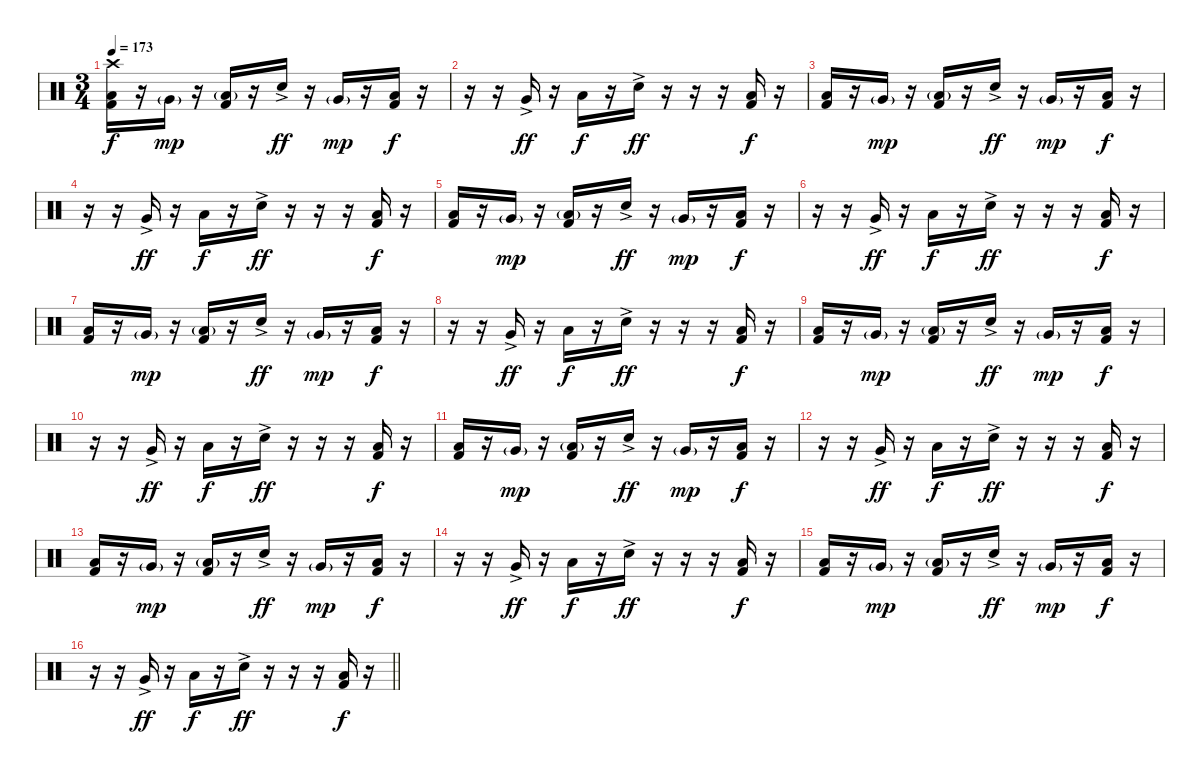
\track (" " " ") {instrument percussion}
\staff {score}
\articulation defaults
\ts (3 4)
\tempo 173
\clef neutral
\ks c
("Crash high (hit)" "Low Floor Tom (hit)" "Kick (hit) 2").16{dy f} r.16 "Very Low Tom (hit)"{g}.16{dy mp} r.16 ("Low Floor Tom (hit)"{g} "Kick (hit) 2").16 r.16 "Electric Snare (hit)"{ac}.16{dy ff} r.16 "Very Low Tom (hit)"{g}.16{dy mp} r.16 ("Low Floor Tom (hit)" "Kick (hit) 2").16{dy f} r.16 |
r.16 r.16 "Very Low Tom (hit)"{ac}.16{dy ff} r.16 "Low Floor Tom (hit)".16{dy f} r.16 "Electric Snare (hit)"{ac}.16{dy ff} r.16 r.16 r.16 ("Low Floor Tom (hit)" "Kick (hit) 2").16{dy f} r.16 |
("Low Floor Tom (hit)" "Kick (hit) 2").16 r.16 "Very Low Tom (hit)"{g}.16{dy mp} r.16 ("Low Floor Tom (hit)"{g} "Kick (hit) 2").16 r.16 "Electric Snare (hit)"{ac}.16{dy ff} r.16 "Very Low Tom (hit)"{g}.16{dy mp} r.16 ("Low Floor Tom (hit)" "Kick (hit) 2").16{dy f} r.16 |
r.16 r.16 "Very Low Tom (hit)"{ac}.16{dy ff} r.16 "Low Floor Tom (hit)".16{dy f} r.16 "Electric Snare (hit)"{ac}.16{dy ff} r.16 r.16 r.16 ("Low Floor Tom (hit)" "Kick (hit) 2").16{dy f} r.16 |
("Low Floor Tom (hit)" "Kick (hit) 2").16 r.16 "Very Low Tom (hit)"{g}.16{dy mp} r.16 ("Low Floor Tom (hit)"{g} "Kick (hit) 2").16 r.16 "Electric Snare (hit)"{ac}.16{dy ff} r.16 "Very Low Tom (hit)"{g}.16{dy mp} r.16 ("Low Floor Tom (hit)" "Kick (hit) 2").16{dy f} r.16 |
r.16 r.16 "Very Low Tom (hit)"{ac}.16{dy ff} r.16 "Low Floor Tom (hit)".16{dy f} r.16 "Electric Snare (hit)"{ac}.16{dy ff} r.16 r.16 r.16 ("Low Floor Tom (hit)" "Kick (hit) 2").16{dy f} r.16 |
("Low Floor Tom (hit)" "Kick (hit) 2").16 r.16 "Very Low Tom (hit)"{g}.16{dy mp} r.16 ("Low Floor Tom (hit)"{g} "Kick (hit) 2").16 r.16 "Electric Snare (hit)"{ac}.16{dy ff} r.16 "Very Low Tom (hit)"{g}.16{dy mp} r.16 ("Low Floor Tom (hit)" "Kick (hit) 2").16{dy f} r.16 |
r.16 r.16 "Very Low Tom (hit)"{ac}.16{dy ff} r.16 "Low Floor Tom (hit)".16{dy f} r.16 "Electric Snare (hit)"{ac}.16{dy ff} r.16 r.16 r.16 ("Low Floor Tom (hit)" "Kick (hit) 2").16{dy f} r.16 |
("Low Floor Tom (hit)" "Kick (hit) 2").16 r.16 "Very Low Tom (hit)"{g}.16{dy mp} r.16 ("Low Floor Tom (hit)"{g} "Kick (hit) 2").16 r.16 "Electric Snare (hit)"{ac}.16{dy ff} r.16 "Very Low Tom (hit)"{g}.16{dy mp} r.16 ("Low Floor Tom (hit)" "Kick (hit) 2").16{dy f} r.16 |
r.16 r.16 "Very Low Tom (hit)"{ac}.16{dy ff} r.16 "Low Floor Tom (hit)".16{dy f} r.16 "Electric Snare (hit)"{ac}.16{dy ff} r.16 r.16 r.16 ("Low Floor Tom (hit)" "Kick (hit) 2").16{dy f} r.16 |
("Low Floor Tom (hit)" "Kick (hit) 2").16 r.16 "Very Low Tom (hit)"{g}.16{dy mp} r.16 ("Low Floor Tom (hit)"{g} "Kick (hit) 2").16 r.16 "Electric Snare (hit)"{ac}.16{dy ff} r.16 "Very Low Tom (hit)"{g}.16{dy mp} r.16 ("Low Floor Tom (hit)" "Kick (hit) 2").16{dy f} r.16 |
r.16 r.16 "Very Low Tom (hit)"{ac}.16{dy ff} r.16 "Low Floor Tom (hit)".16{dy f} r.16 "Electric Snare (hit)"{ac}.16{dy ff} r.16 r.16 r.16 ("Low Floor Tom (hit)" "Kick (hit) 2").16{dy f} r.16 |
("Low Floor Tom (hit)" "Kick (hit) 2").16 r.16 "Very Low Tom (hit)"{g}.16{dy mp} r.16 ("Low Floor Tom (hit)"{g} "Kick (hit) 2").16 r.16 "Electric Snare (hit)"{ac}.16{dy ff} r.16 "Very Low Tom (hit)"{g}.16{dy mp} r.16 ("Low Floor Tom (hit)" "Kick (hit) 2").16{dy f} r.16 |
r.16 r.16 "Very Low Tom (hit)"{ac}.16{dy ff} r.16 "Low Floor Tom (hit)".16{dy f} r.16 "Electric Snare (hit)"{ac}.16{dy ff} r.16 r.16 r.16 ("Low Floor Tom (hit)" "Kick (hit) 2").16{dy f} r.16 |
("Low Floor Tom (hit)" "Kick (hit) 2").16 r.16 "Very Low Tom (hit)"{g}.16{dy mp} r.16 ("Low Floor Tom (hit)"{g} "Kick (hit) 2").16 r.16 "Electric Snare (hit)"{ac}.16{dy ff} r.16 "Very Low Tom (hit)"{g}.16{dy mp} r.16 ("Low Floor Tom (hit)" "Kick (hit) 2").16{dy f} r.16 |
\barLineRight lightlight
r.16 r.16 "Very Low Tom (hit)"{ac}.16{dy ff} r.16 "Low Floor Tom (hit)".16{dy f} r.16 "Electric Snare (hit)"{ac}.16{dy ff} r.16 r.16 r.16 ("Low Floor Tom (hit)" "Kick (hit) 2").16{dy f} r.16
